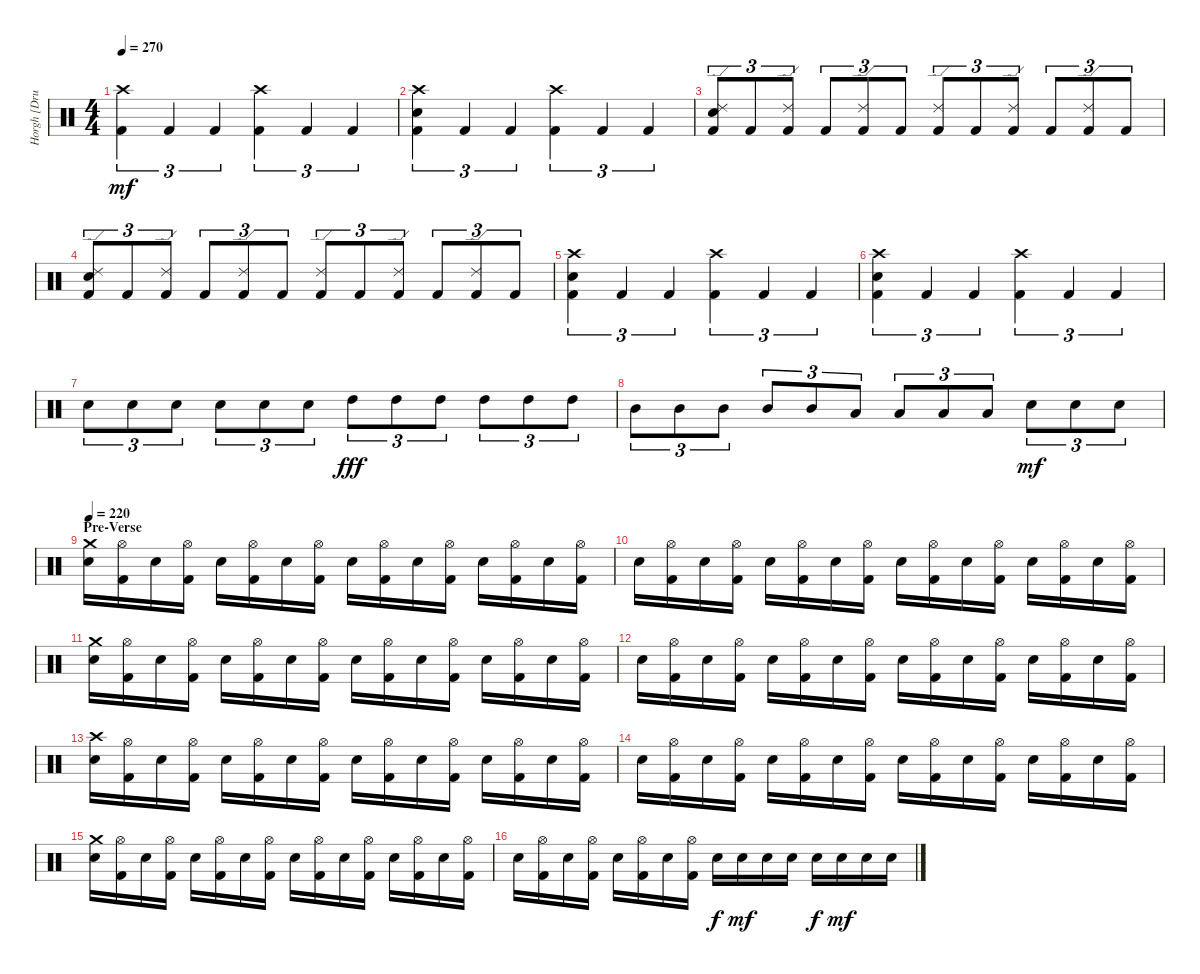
\track ("Horgh [Drums]" "Horgh [Dru") {instrument percussion}
\staff {score}
\articulation defaults
\ts (4 4)
\tempo 270
\clef neutral
\ks c
("Crash high (hit)" "Kick (hit) 2").4{tu (3 2) dy mf} "Kick (hit) 2".4{tu (3 2)} "Kick (hit) 2".4{tu (3 2)} ("Crash high (hit)" "Kick (hit) 2").4{tu (3 2)} "Kick (hit) 2".4{tu (3 2)} "Kick (hit) 2".4{tu (3 2)} |
("Crash high (hit)" "Electric Snare (hit)" "Kick (hit) 2").4{tu (3 2)} "Kick (hit) 2".4{tu (3 2)} "Kick (hit) 2".4{tu (3 2)} ("Crash high (hit)" "Kick (hit) 2").4{tu (3 2)} "Kick (hit) 2".4{tu (3 2)} "Kick (hit) 2".4{tu (3 2)} |
("Ride (edge) 2" "Electric Snare (hit)" "Kick (hit) 2").8{tu (3 2)} "Kick (hit) 2".8{tu (3 2)} ("Ride (edge) 2" "Kick (hit) 2").8{tu (3 2)} "Kick (hit) 2".8{tu (3 2)} ("Ride (edge) 2" "Kick (hit) 2").8{tu (3 2)} "Kick (hit) 2".8{tu (3 2)} ("Ride (edge) 2" "Kick (hit) 2").8{tu (3 2)} "Kick (hit) 2".8{tu (3 2)} ("Ride (edge) 2" "Kick (hit) 2").8{tu (3 2)} "Kick (hit) 2".8{tu (3 2)} ("Ride (edge) 2" "Kick (hit) 2").8{tu (3 2)} "Kick (hit) 2".8{tu (3 2)} |
("Ride (edge) 2" "Electric Snare (hit)" "Kick (hit) 2").8{tu (3 2)} "Kick (hit) 2".8{tu (3 2)} ("Ride (edge) 2" "Kick (hit) 2").8{tu (3 2)} "Kick (hit) 2".8{tu (3 2)} ("Ride (edge) 2" "Kick (hit) 2").8{tu (3 2)} "Kick (hit) 2".8{tu (3 2)} ("Ride (edge) 2" "Kick (hit) 2").8{tu (3 2)} "Kick (hit) 2".8{tu (3 2)} ("Ride (edge) 2" "Kick (hit) 2").8{tu (3 2)} "Kick (hit) 2".8{tu (3 2)} ("Ride (edge) 2" "Kick (hit) 2").8{tu (3 2)} "Kick (hit) 2".8{tu (3 2)} |
("Crash high (hit)" "Electric Snare (hit)" "Kick (hit) 2").4{tu (3 2)} "Kick (hit) 2".4{tu (3 2)} "Kick (hit) 2".4{tu (3 2)} ("Crash high (hit)" "Kick (hit) 2").4{tu (3 2)} "Kick (hit) 2".4{tu (3 2)} "Kick (hit) 2".4{tu (3 2)} |
("Crash high (hit)" "Electric Snare (hit)" "Kick (hit) 2").4{tu (3 2)} "Kick (hit) 2".4{tu (3 2)} "Kick (hit) 2".4{tu (3 2)} ("Crash high (hit)" "Kick (hit) 2").4{tu (3 2)} "Kick (hit) 2".4{tu (3 2)} "Kick (hit) 2".4{tu (3 2)} |
"Electric Snare (hit)".8{tu (3 2)} "Electric Snare (hit)".8{tu (3 2)} "Electric Snare (hit)".8{tu (3 2)} "Electric Snare (hit)".8{tu (3 2)} "Electric Snare (hit)".8{tu (3 2)} "Electric Snare (hit)".8{tu (3 2)} "High Tom (hit)".8{tu (3 2) dy fff} "High Tom (hit)".8{tu (3 2)} "High Tom (hit)".8{tu (3 2)} "High Tom (hit)".8{tu (3 2)} "High Tom (hit)".8{tu (3 2)} "High Tom (hit)".8{tu (3 2)} |
"Mid Tom (hit)".8{tu (3 2)} "Mid Tom (hit)".8{tu (3 2)} "Mid Tom (hit)".8{tu (3 2)} "Mid Tom (hit)".8{tu (3 2)} "Mid Tom (hit)".8{tu (3 2)} "Low Tom (hit)".8{tu (3 2)} "Low Tom (hit)".8{tu (3 2)} "Low Tom (hit)".8{tu (3 2)} "Low Tom (hit)".8{tu (3 2)} "Electric Snare (hit)".8{tu (3 2) dy mf} "Electric Snare (hit)".8{tu (3 2)} "Electric Snare (hit)".8{tu (3 2)} |
\section ("" "Pre-Verse")
\tempo 220
("Crash medium (hit)" "Electric Snare (hit)").16 ("Hi-Hat (open)" "Kick (hit) 2").16 "Electric Snare (hit)".16 ("Hi-Hat (open)" "Kick (hit) 2").16 "Electric Snare (hit)".16 ("Hi-Hat (open)" "Kick (hit) 2").16 "Electric Snare (hit)".16 ("Hi-Hat (open)" "Kick (hit) 2").16 "Electric Snare (hit)".16 ("Hi-Hat (open)" "Kick (hit) 2").16 "Electric Snare (hit)".16 ("Hi-Hat (open)" "Kick (hit) 2").16 "Electric Snare (hit)".16 ("Hi-Hat (open)" "Kick (hit) 2").16 "Electric Snare (hit)".16 ("Hi-Hat (open)" "Kick (hit) 2").16 |
"Electric Snare (hit)".16 ("Hi-Hat (open)" "Kick (hit) 2").16 "Electric Snare (hit)".16 ("Hi-Hat (open)" "Kick (hit) 2").16 "Electric Snare (hit)".16 ("Hi-Hat (open)" "Kick (hit) 2").16 "Electric Snare (hit)".16 ("Hi-Hat (open)" "Kick (hit) 2").16 "Electric Snare (hit)".16 ("Hi-Hat (open)" "Kick (hit) 2").16 "Electric Snare (hit)".16 ("Hi-Hat (open)" "Kick (hit) 2").16 "Electric Snare (hit)".16 ("Hi-Hat (open)" "Kick (hit) 2").16 "Electric Snare (hit)".16 ("Hi-Hat (open)" "Kick (hit) 2").16 |
("Crash medium (hit)" "Electric Snare (hit)").16 ("Hi-Hat (open)" "Kick (hit) 2").16 "Electric Snare (hit)".16 ("Hi-Hat (open)" "Kick (hit) 2").16 "Electric Snare (hit)".16 ("Hi-Hat (open)" "Kick (hit) 2").16 "Electric Snare (hit)".16 ("Hi-Hat (open)" "Kick (hit) 2").16 "Electric Snare (hit)".16 ("Hi-Hat (open)" "Kick (hit) 2").16 "Electric Snare (hit)".16 ("Hi-Hat (open)" "Kick (hit) 2").16 "Electric Snare (hit)".16 ("Hi-Hat (open)" "Kick (hit) 2").16 "Electric Snare (hit)".16 ("Hi-Hat (open)" "Kick (hit) 2").16 |
"Electric Snare (hit)".16 ("Hi-Hat (open)" "Kick (hit) 2").16 "Electric Snare (hit)".16 ("Hi-Hat (open)" "Kick (hit) 2").16 "Electric Snare (hit)".16 ("Hi-Hat (open)" "Kick (hit) 2").16 "Electric Snare (hit)".16 ("Hi-Hat (open)" "Kick (hit) 2").16 "Electric Snare (hit)".16 ("Hi-Hat (open)" "Kick (hit) 2").16 "Electric Snare (hit)".16 ("Hi-Hat (open)" "Kick (hit) 2").16 "Electric Snare (hit)".16 ("Hi-Hat (open)" "Kick (hit) 2").16 "Electric Snare (hit)".16 ("Hi-Hat (open)" "Kick (hit) 2").16 |
("Crash high (hit)" "Electric Snare (hit)").16 ("Hi-Hat (open)" "Kick (hit) 2").16 "Electric Snare (hit)".16 ("Hi-Hat (open)" "Kick (hit) 2").16 "Electric Snare (hit)".16 ("Hi-Hat (open)" "Kick (hit) 2").16 "Electric Snare (hit)".16 ("Hi-Hat (open)" "Kick (hit) 2").16 "Electric Snare (hit)".16 ("Hi-Hat (open)" "Kick (hit) 2").16 "Electric Snare (hit)".16 ("Hi-Hat (open)" "Kick (hit) 2").16 "Electric Snare (hit)".16 ("Hi-Hat (open)" "Kick (hit) 2").16 "Electric Snare (hit)".16 ("Hi-Hat (open)" "Kick (hit) 2").16 |
"Electric Snare (hit)".16 ("Hi-Hat (open)" "Kick (hit) 2").16 "Electric Snare (hit)".16 ("Hi-Hat (open)" "Kick (hit) 2").16 "Electric Snare (hit)".16 ("Hi-Hat (open)" "Kick (hit) 2").16 "Electric Snare (hit)".16 ("Hi-Hat (open)" "Kick (hit) 2").16 "Electric Snare (hit)".16 ("Hi-Hat (open)" "Kick (hit) 2").16 "Electric Snare (hit)".16 ("Hi-Hat (open)" "Kick (hit) 2").16 "Electric Snare (hit)".16 ("Hi-Hat (open)" "Kick (hit) 2").16 "Electric Snare (hit)".16 ("Hi-Hat (open)" "Kick (hit) 2").16 |
("Crash medium (hit)" "Electric Snare (hit)").16 ("Hi-Hat (open)" "Kick (hit) 2").16 "Electric Snare (hit)".16 ("Hi-Hat (open)" "Kick (hit) 2").16 "Electric Snare (hit)".16 ("Hi-Hat (open)" "Kick (hit) 2").16 "Electric Snare (hit)".16 ("Hi-Hat (open)" "Kick (hit) 2").16 "Electric Snare (hit)".16 ("Hi-Hat (open)" "Kick (hit) 2").16 "Electric Snare (hit)".16 ("Hi-Hat (open)" "Kick (hit) 2").16 "Electric Snare (hit)".16 ("Hi-Hat (open)" "Kick (hit) 2").16 "Electric Snare (hit)".16 ("Hi-Hat (open)" "Kick (hit) 2").16 |
"Electric Snare (hit)".16 ("Hi-Hat (open)" "Kick (hit) 2").16 "Electric Snare (hit)".16 ("Hi-Hat (open)" "Kick (hit) 2").16 "Electric Snare (hit)".16 ("Hi-Hat (open)" "Kick (hit) 2").16 "Electric Snare (hit)".16 ("Hi-Hat (open)" "Kick (hit) 2").16 "Electric Snare (hit)".16{dy f} "Electric Snare (hit)".16{dy mf} "Electric Snare (hit)".16 "Electric Snare (hit)".16 "Electric Snare (hit)".16{dy f} "Electric Snare (hit)".16{dy mf} "Electric Snare (hit)".16 "Electric Snare (hit)".16
